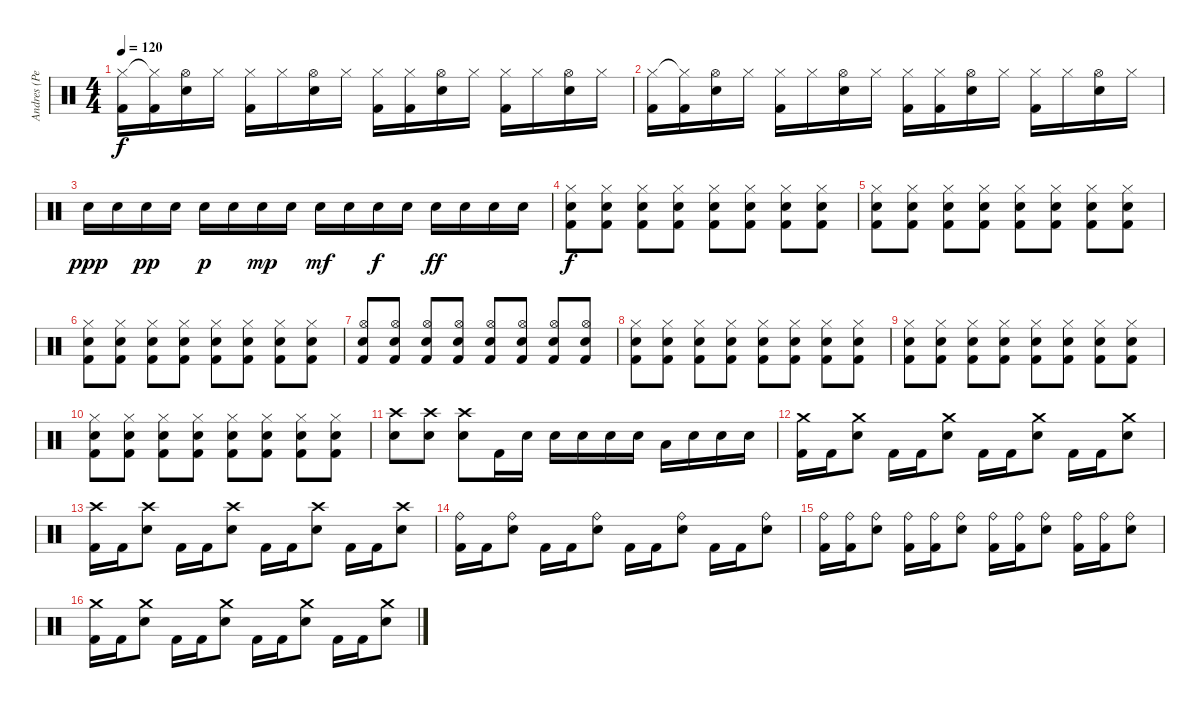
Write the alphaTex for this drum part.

\track ("Andres (Percussion)" "Andres (Pe") {instrument percussion}
\staff {score}
\articulation defaults
\ts (4 4)
\tempo 120
\clef neutral
\ks c
("Hi-Hat (closed)" "Kick (hit) 2").16{dy f} ("Hi-Hat (closed)"{t} "Kick (hit) 2").16 ("Hi-Hat (open)" "Electric Snare (hit)").16 "Hi-Hat (closed)".16 ("Hi-Hat (closed)" "Kick (hit) 2").16 "Hi-Hat (closed)".16 ("Hi-Hat (open)" "Electric Snare (hit)").16 "Hi-Hat (closed)".16 ("Hi-Hat (closed)" "Kick (hit) 2").16 ("Hi-Hat (closed)" "Kick (hit) 2").16 ("Hi-Hat (open)" "Electric Snare (hit)").16 "Hi-Hat (closed)".16 ("Hi-Hat (closed)" "Kick (hit) 2").16 "Hi-Hat (closed)".16 ("Hi-Hat (open)" "Electric Snare (hit)").16 "Hi-Hat (closed)".16 |
("Hi-Hat (closed)" "Kick (hit) 2").16 ("Hi-Hat (closed)"{t} "Kick (hit) 2").16 ("Hi-Hat (open)" "Electric Snare (hit)").16 "Hi-Hat (closed)".16 ("Hi-Hat (closed)" "Kick (hit) 2").16 "Hi-Hat (closed)".16 ("Hi-Hat (open)" "Electric Snare (hit)").16 "Hi-Hat (closed)".16 ("Hi-Hat (closed)" "Kick (hit) 2").16 ("Hi-Hat (closed)" "Kick (hit) 2").16 ("Hi-Hat (open)" "Electric Snare (hit)").16 "Hi-Hat (closed)".16 ("Hi-Hat (closed)" "Kick (hit) 2").16 "Hi-Hat (closed)".16 ("Hi-Hat (open)" "Electric Snare (hit)").16 "Hi-Hat (closed)".16 |
"Electric Snare (hit)".16{dy ppp} "Electric Snare (hit)".16 "Electric Snare (hit)".16{dy pp} "Electric Snare (hit)".16 "Electric Snare (hit)".16{dy p} "Electric Snare (hit)".16 "Electric Snare (hit)".16{dy mp} "Electric Snare (hit)".16 "Electric Snare (hit)".16{dy mf} "Electric Snare (hit)".16 "Electric Snare (hit)".16{dy f} "Electric Snare (hit)".16 "Electric Snare (hit)".16{dy ff} "Electric Snare (hit)".16 "Electric Snare (hit)".16 "Electric Snare (hit)".16 |
("Hi-Hat (closed)" "Electric Snare (hit)" "Kick (hit) 2").8{dy f} ("Hi-Hat (closed)" "Electric Snare (hit)" "Kick (hit) 2").8 ("Hi-Hat (closed)" "Electric Snare (hit)" "Kick (hit) 2").8 ("Hi-Hat (closed)" "Electric Snare (hit)" "Kick (hit) 2").8 ("Hi-Hat (closed)" "Electric Snare (hit)" "Kick (hit) 2").8 ("Hi-Hat (closed)" "Electric Snare (hit)" "Kick (hit) 2").8 ("Hi-Hat (closed)" "Electric Snare (hit)" "Kick (hit) 2").8 ("Hi-Hat (closed)" "Electric Snare (hit)" "Kick (hit) 2").8 |
("Hi-Hat (closed)" "Electric Snare (hit)" "Kick (hit) 2").8 ("Hi-Hat (closed)" "Electric Snare (hit)" "Kick (hit) 2").8 ("Hi-Hat (closed)" "Electric Snare (hit)" "Kick (hit) 2").8 ("Hi-Hat (closed)" "Electric Snare (hit)" "Kick (hit) 2").8 ("Hi-Hat (closed)" "Electric Snare (hit)" "Kick (hit) 2").8 ("Hi-Hat (closed)" "Electric Snare (hit)" "Kick (hit) 2").8 ("Hi-Hat (closed)" "Electric Snare (hit)" "Kick (hit) 2").8 ("Hi-Hat (closed)" "Electric Snare (hit)" "Kick (hit) 2").8 |
("Hi-Hat (closed)" "Electric Snare (hit)" "Kick (hit) 2").8 ("Hi-Hat (closed)" "Electric Snare (hit)" "Kick (hit) 2").8 ("Hi-Hat (closed)" "Electric Snare (hit)" "Kick (hit) 2").8 ("Hi-Hat (closed)" "Electric Snare (hit)" "Kick (hit) 2").8 ("Hi-Hat (closed)" "Electric Snare (hit)" "Kick (hit) 2").8 ("Hi-Hat (closed)" "Electric Snare (hit)" "Kick (hit) 2").8 ("Hi-Hat (closed)" "Electric Snare (hit)" "Kick (hit) 2").8 ("Hi-Hat (closed)" "Electric Snare (hit)" "Kick (hit) 2").8 |
("Hi-Hat (open)" "Electric Snare (hit)" "Kick (hit) 2").8 ("Hi-Hat (open)" "Electric Snare (hit)" "Kick (hit) 2").8 ("Hi-Hat (open)" "Electric Snare (hit)" "Kick (hit) 2").8 ("Hi-Hat (open)" "Electric Snare (hit)" "Kick (hit) 2").8 ("Hi-Hat (open)" "Electric Snare (hit)" "Kick (hit) 2").8 ("Hi-Hat (open)" "Electric Snare (hit)" "Kick (hit) 2").8 ("Hi-Hat (open)" "Electric Snare (hit)" "Kick (hit) 2").8 ("Hi-Hat (open)" "Electric Snare (hit)" "Kick (hit) 2").8 |
("Hi-Hat (closed)" "Electric Snare (hit)" "Kick (hit) 2").8 ("Hi-Hat (closed)" "Electric Snare (hit)" "Kick (hit) 2").8 ("Hi-Hat (closed)" "Electric Snare (hit)" "Kick (hit) 2").8 ("Hi-Hat (closed)" "Electric Snare (hit)" "Kick (hit) 2").8 ("Hi-Hat (closed)" "Electric Snare (hit)" "Kick (hit) 2").8 ("Hi-Hat (closed)" "Electric Snare (hit)" "Kick (hit) 2").8 ("Hi-Hat (closed)" "Electric Snare (hit)" "Kick (hit) 2").8 ("Hi-Hat (closed)" "Electric Snare (hit)" "Kick (hit) 2").8 |
("Hi-Hat (closed)" "Electric Snare (hit)" "Kick (hit) 2").8 ("Hi-Hat (closed)" "Electric Snare (hit)" "Kick (hit) 2").8 ("Hi-Hat (closed)" "Electric Snare (hit)" "Kick (hit) 2").8 ("Hi-Hat (closed)" "Electric Snare (hit)" "Kick (hit) 2").8 ("Hi-Hat (closed)" "Electric Snare (hit)" "Kick (hit) 2").8 ("Hi-Hat (closed)" "Electric Snare (hit)" "Kick (hit) 2").8 ("Hi-Hat (closed)" "Electric Snare (hit)" "Kick (hit) 2").8 ("Hi-Hat (closed)" "Electric Snare (hit)" "Kick (hit) 2").8 |
("Hi-Hat (closed)" "Electric Snare (hit)" "Kick (hit) 2").8 ("Hi-Hat (closed)" "Electric Snare (hit)" "Kick (hit) 2").8 ("Hi-Hat (closed)" "Electric Snare (hit)" "Kick (hit) 2").8 ("Hi-Hat (closed)" "Electric Snare (hit)" "Kick (hit) 2").8 ("Hi-Hat (closed)" "Electric Snare (hit)" "Kick (hit) 2").8 ("Hi-Hat (closed)" "Electric Snare (hit)" "Kick (hit) 2").8 ("Hi-Hat (closed)" "Electric Snare (hit)" "Kick (hit) 2").8 ("Hi-Hat (closed)" "Electric Snare (hit)" "Kick (hit) 2").8 |
("Crash high (hit)" "Electric Snare (hit)").8 ("Crash high (hit)" "Electric Snare (hit)").8 ("Crash high (hit)" "Electric Snare (hit)").8 "Kick (hit) 2".16 "Electric Snare (hit)".16 "Electric Snare (hit)".16 "Electric Snare (hit)".16 "Electric Snare (hit)".16 "Electric Snare (hit)".16 "Low Tom (hit)".16 "Electric Snare (hit)".16 "Electric Snare (hit)".16 "Electric Snare (hit)".16 |
("Crash medium (hit)" "Kick (hit) 2").16 "Kick (hit) 2".16 ("Crash medium (hit)" "Electric Snare (hit)").8 "Kick (hit) 2".16 "Kick (hit) 2".16 ("Crash medium (hit)" "Electric Snare (hit)").8 "Kick (hit) 2".16 "Kick (hit) 2".16 ("Crash medium (hit)" "Electric Snare (hit)").8 "Kick (hit) 2".16 "Kick (hit) 2".16 ("Crash medium (hit)" "Electric Snare (hit)").8 |
("Crash high (hit)" "Kick (hit) 2").16 "Kick (hit) 2".16 ("Crash high (hit)" "Electric Snare (hit)").8 "Kick (hit) 2".16 "Kick (hit) 2".16 ("Crash high (hit)" "Electric Snare (hit)").8 "Kick (hit) 2".16 "Kick (hit) 2".16 ("Crash high (hit)" "Electric Snare (hit)").8 "Kick (hit) 2".16 "Kick (hit) 2".16 ("Crash high (hit)" "Electric Snare (hit)").8 |
("Ride (bell)" "Kick (hit) 2").16 "Kick (hit) 2".16 ("Ride (bell)" "Electric Snare (hit)").8 "Kick (hit) 2".16 "Kick (hit) 2".16 ("Ride (bell)" "Electric Snare (hit)").8 "Kick (hit) 2".16 "Kick (hit) 2".16 ("Ride (bell)" "Electric Snare (hit)").8 "Kick (hit) 2".16 "Kick (hit) 2".16 ("Ride (bell)" "Electric Snare (hit)").8 |
("Ride (bell)" "Kick (hit) 2").16 ("Ride (bell)" "Kick (hit) 2").16 ("Ride (bell)" "Electric Snare (hit)").8 ("Ride (bell)" "Kick (hit) 2").16 ("Ride (bell)" "Kick (hit) 2").16 ("Ride (bell)" "Electric Snare (hit)").8 ("Ride (bell)" "Kick (hit) 2").16 ("Ride (bell)" "Kick (hit) 2").16 ("Ride (bell)" "Electric Snare (hit)").8 ("Ride (bell)" "Kick (hit) 2").16 ("Ride (bell)" "Kick (hit) 2").16 ("Ride (bell)" "Electric Snare (hit)").8 |
("Crash medium (hit)" "Kick (hit) 2").16 "Kick (hit) 2".16 ("Crash medium (hit)" "Electric Snare (hit)").8 "Kick (hit) 2".16 "Kick (hit) 2".16 ("Crash medium (hit)" "Electric Snare (hit)").8 "Kick (hit) 2".16 "Kick (hit) 2".16 ("Crash medium (hit)" "Electric Snare (hit)").8 "Kick (hit) 2".16 "Kick (hit) 2".16 ("Crash medium (hit)" "Electric Snare (hit)").8
